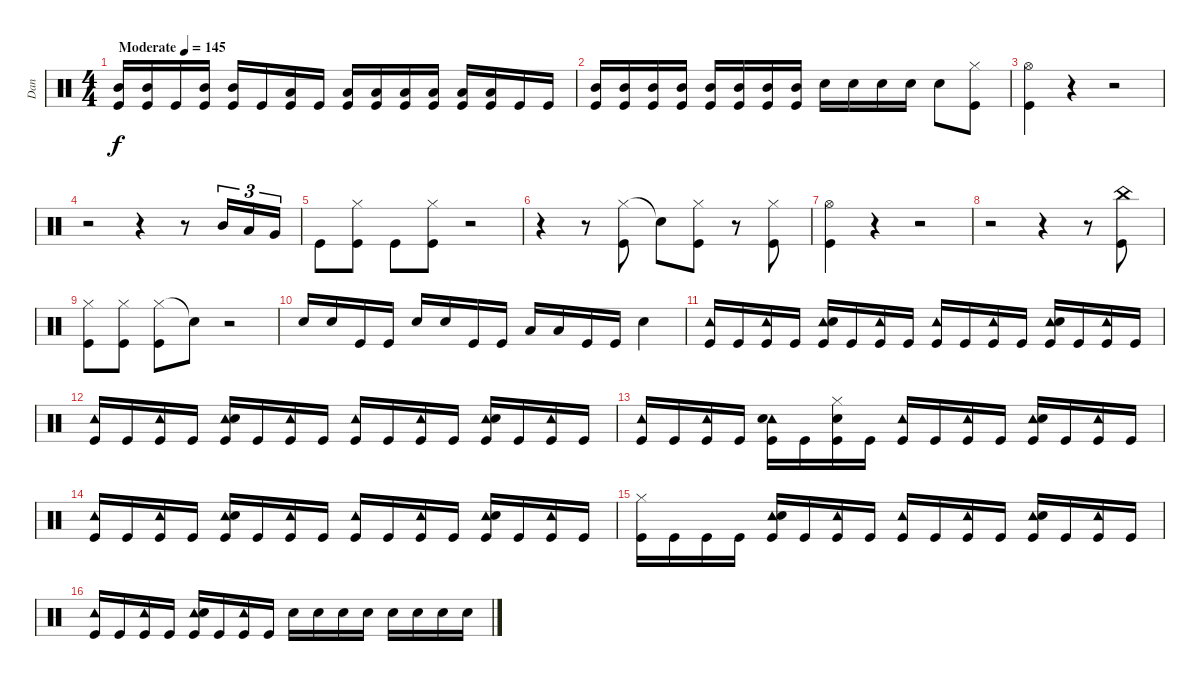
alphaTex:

\track ("Dan" "Dan") {instrument percussion}
\staff {score}
\articulation defaults
\ts (4 4)
\tempo (145 "Moderate")
\clef neutral
\ks c
("Mid Tom (hit)" "Kick (hit)").16{dy f} ("Mid Tom (hit)" "Kick (hit)").16 "Kick (hit)".16 ("Mid Tom (hit)" "Kick (hit)").16 ("Mid Tom (hit)" "Kick (hit)").16 "Kick (hit)".16 ("Low Tom (hit)" "Kick (hit)").16 "Kick (hit)".16 ("Low Tom (hit)" "Kick (hit)").16 ("Low Tom (hit)" "Kick (hit)").16 ("Low Tom (hit)" "Kick (hit)").16 ("Low Tom (hit)" "Kick (hit)").16 ("Low Tom (hit)" "Kick (hit)").16 ("Low Tom (hit)" "Kick (hit)").16 "Kick (hit)".16 "Kick (hit)".16 |
("Mid Tom (hit)" "Kick (hit)").16 ("Mid Tom (hit)" "Kick (hit)").16 ("Mid Tom (hit)" "Kick (hit)").16 ("Mid Tom (hit)" "Kick (hit)").16 ("Mid Tom (hit)" "Kick (hit)").16 ("Mid Tom (hit)" "Kick (hit)").16 ("Mid Tom (hit)" "Kick (hit)").16 ("Mid Tom (hit)" "Kick (hit)").16 "Snare (hit) 2".16 "Snare (hit) 2".16 "Snare (hit) 2".16 "Snare (hit) 2".16 "Snare (hit) 2".8 ("Hi-Hat (closed)" "Kick (hit)").8 |
("Hi-Hat (open)" "Kick (hit)").4 r.4 r.2 |
r.2 r.4 r.8 "Mid Tom (hit)".16{tu (3 2)} "Low Tom (hit)".16{tu (3 2)} "Very Low Tom (hit)".16{tu (3 2)} |
"Kick (hit)".8 ("Hi-Hat (closed)" "Kick (hit)").8 "Kick (hit)".8 ("Hi-Hat (closed)" "Kick (hit)").8 r.2 |
r.4 r.8 ("Hi-Hat (closed)" "Kick (hit)").8 "Snare (hit)"{t}.8 ("Hi-Hat (closed)" "Kick (hit)").8 r.8 ("Hi-Hat (closed)" "Kick (hit)").8 |
("Hi-Hat (open)" "Kick (hit)").4 r.4 r.2 |
r.2 r.4 r.8 ("China (hit)" "Kick (hit)").8 |
("Hi-Hat (closed)" "Kick (hit)").8 ("Hi-Hat (closed)" "Kick (hit)").8 ("Hi-Hat (closed)" "Kick (hit)").8 "Snare (hit)"{t}.8 r.2 |
"Snare (hit) 2".16 "Snare (hit) 2".16 "Kick (hit)".16 "Kick (hit)".16 "Snare (hit) 2".16 "Snare (hit) 2".16 "Kick (hit)".16 "Kick (hit)".16 "Low Tom (hit)".16 "Low Tom (hit)".16 "Kick (hit)".16 "Kick (hit)".16 "Snare (hit) 2".4 |
("Tambourine (hit)" "Kick (hit)").16 "Kick (hit)".16 ("Tambourine (hit)" "Kick (hit)").16 "Kick (hit)".16 ("Tambourine (hit)" "Snare (hit) 2" "Kick (hit)").16 "Kick (hit)".16 ("Tambourine (hit)" "Kick (hit)").16 "Kick (hit)".16 ("Tambourine (hit)" "Kick (hit)").16 "Kick (hit)".16 ("Tambourine (hit)" "Kick (hit)").16 "Kick (hit)".16 ("Tambourine (hit)" "Snare (hit) 2" "Kick (hit)").16 "Kick (hit)".16 ("Tambourine (hit)" "Kick (hit)").16 "Kick (hit)".16 |
("Tambourine (hit)" "Kick (hit)").16 "Kick (hit)".16 ("Tambourine (hit)" "Kick (hit)").16 "Kick (hit)".16 ("Tambourine (hit)" "Snare (hit) 2" "Kick (hit)").16 "Kick (hit)".16 ("Tambourine (hit)" "Kick (hit)").16 "Kick (hit)".16 ("Tambourine (hit)" "Kick (hit)").16 "Kick (hit)".16 ("Tambourine (hit)" "Kick (hit)").16 "Kick (hit)".16 ("Tambourine (hit)" "Snare (hit) 2" "Kick (hit)").16 "Kick (hit)".16 ("Tambourine (hit)" "Kick (hit)").16 "Kick (hit)".16 |
("Tambourine (hit)" "Kick (hit)").16 "Kick (hit)".16 ("Tambourine (hit)" "Kick (hit)").16 "Kick (hit)".16 ("Tambourine (hit)" "Snare (hit) 2" "Kick (hit)").16 "Kick (hit)".16 ("Hi-Hat (closed)" "Snare (hit) 2" "Kick (hit)").16 "Kick (hit)".16 ("Tambourine (hit)" "Kick (hit)").16 "Kick (hit)".16 ("Tambourine (hit)" "Kick (hit)").16 "Kick (hit)".16 ("Tambourine (hit)" "Snare (hit) 2" "Kick (hit)").16 "Kick (hit)".16 ("Tambourine (hit)" "Kick (hit)").16 "Kick (hit)".16 |
("Tambourine (hit)" "Kick (hit)").16 "Kick (hit)".16 ("Tambourine (hit)" "Kick (hit)").16 "Kick (hit)".16 ("Tambourine (hit)" "Snare (hit) 2" "Kick (hit)").16 "Kick (hit)".16 ("Tambourine (hit)" "Kick (hit)").16 "Kick (hit)".16 ("Tambourine (hit)" "Kick (hit)").16 "Kick (hit)".16 ("Tambourine (hit)" "Kick (hit)").16 "Kick (hit)".16 ("Tambourine (hit)" "Snare (hit) 2" "Kick (hit)").16 "Kick (hit)".16 ("Tambourine (hit)" "Kick (hit)").16 "Kick (hit)".16 |
("Hi-Hat (closed)" "Kick (hit)").16 "Kick (hit)".16 "Kick (hit)".16 "Kick (hit)".16 ("Tambourine (hit)" "Snare (hit) 2" "Kick (hit)").16 "Kick (hit)".16 ("Tambourine (hit)" "Kick (hit)").16 "Kick (hit)".16 ("Tambourine (hit)" "Kick (hit)").16 "Kick (hit)".16 ("Tambourine (hit)" "Kick (hit)").16 "Kick (hit)".16 ("Tambourine (hit)" "Snare (hit) 2" "Kick (hit)").16 "Kick (hit)".16 ("Tambourine (hit)" "Kick (hit)").16 "Kick (hit)".16 |
("Tambourine (hit)" "Kick (hit)").16 "Kick (hit)".16 ("Tambourine (hit)" "Kick (hit)").16 "Kick (hit)".16 ("Tambourine (hit)" "Snare (hit) 2" "Kick (hit)").16 "Kick (hit)".16 ("Tambourine (hit)" "Kick (hit)").16 "Kick (hit)".16 "Snare (hit) 2".16 "Snare (hit) 2".16 "Snare (hit) 2".16 "Snare (hit) 2".16 "Snare (hit) 2".16 "Snare (hit) 2".16 "Snare (hit) 2".16 "Snare (hit) 2".16
